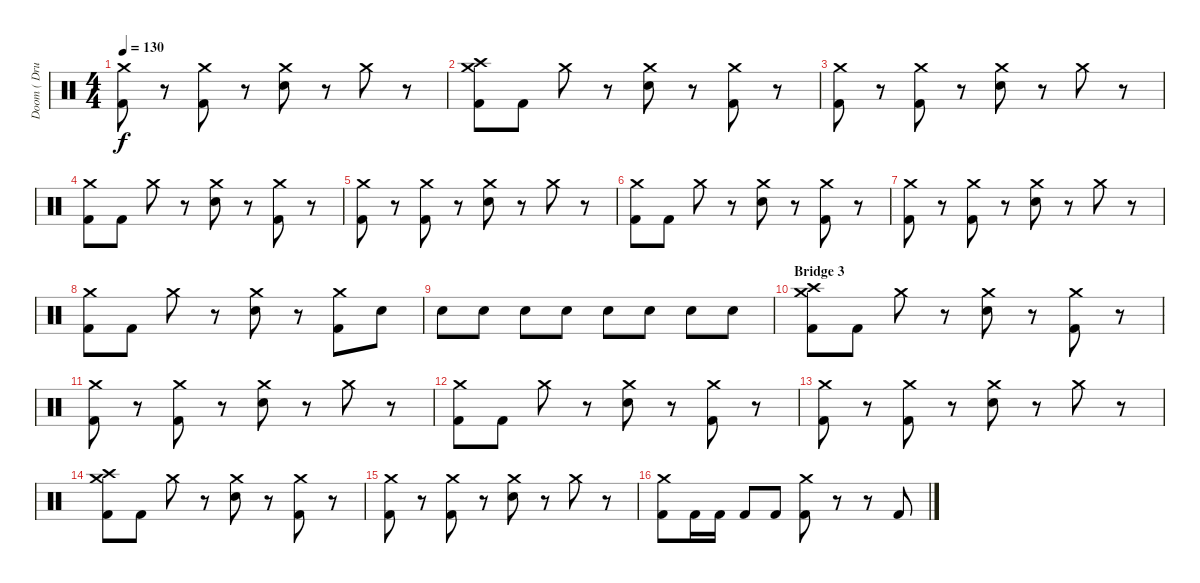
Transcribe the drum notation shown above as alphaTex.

\track ("Doom ( Drums )" "Doom ( Dru") {instrument percussion}
\staff {score}
\articulation defaults
\ts (4 4)
\tempo 130
\clef neutral
\ks c
("Kick (hit) 2" "Crash medium (hit)").8{dy f} r.8 ("Kick (hit) 2" "Crash medium (hit)").8 r.8 ("Electric Snare (hit)" "Crash medium (hit)").8 r.8 "Crash medium (hit)".8 r.8 |
("Crash high (hit)" "Kick (hit) 2" "Crash medium (hit)").8 "Kick (hit) 2".8 "Crash medium (hit)".8 r.8 ("Electric Snare (hit)" "Crash medium (hit)").8 r.8 ("Kick (hit) 2" "Crash medium (hit)").8 r.8 |
("Kick (hit) 2" "Crash medium (hit)").8 r.8 ("Kick (hit) 2" "Crash medium (hit)").8 r.8 ("Electric Snare (hit)" "Crash medium (hit)").8 r.8 "Crash medium (hit)".8 r.8 |
("Kick (hit) 2" "Crash medium (hit)").8 "Kick (hit) 2".8 "Crash medium (hit)".8 r.8 ("Electric Snare (hit)" "Crash medium (hit)").8 r.8 ("Kick (hit) 2" "Crash medium (hit)").8 r.8 |
("Kick (hit) 2" "Crash medium (hit)").8 r.8 ("Kick (hit) 2" "Crash medium (hit)").8 r.8 ("Electric Snare (hit)" "Crash medium (hit)").8 r.8 "Crash medium (hit)".8 r.8 |
("Kick (hit) 2" "Crash medium (hit)").8 "Kick (hit) 2".8 "Crash medium (hit)".8 r.8 ("Electric Snare (hit)" "Crash medium (hit)").8 r.8 ("Kick (hit) 2" "Crash medium (hit)").8 r.8 |
("Kick (hit) 2" "Crash medium (hit)").8 r.8 ("Kick (hit) 2" "Crash medium (hit)").8 r.8 ("Electric Snare (hit)" "Crash medium (hit)").8 r.8 "Crash medium (hit)".8 r.8 |
("Kick (hit) 2" "Crash medium (hit)").8 "Kick (hit) 2".8 "Crash medium (hit)".8 r.8 ("Electric Snare (hit)" "Crash medium (hit)").8 r.8 ("Kick (hit) 2" "Crash medium (hit)").8 "Electric Snare (hit)".8 |
"Electric Snare (hit)".8 "Electric Snare (hit)".8 "Electric Snare (hit)".8 "Electric Snare (hit)".8 "Electric Snare (hit)".8 "Electric Snare (hit)".8 "Electric Snare (hit)".8 "Electric Snare (hit)".8 |
\section ("" "Bridge 3")
("Crash high (hit)" "Kick (hit) 2" "Crash medium (hit)").8 "Kick (hit) 2".8 "Crash medium (hit)".8 r.8 ("Electric Snare (hit)" "Crash medium (hit)").8 r.8 ("Kick (hit) 2" "Crash medium (hit)").8 r.8 |
("Kick (hit) 2" "Crash medium (hit)").8 r.8 ("Kick (hit) 2" "Crash medium (hit)").8 r.8 ("Electric Snare (hit)" "Crash medium (hit)").8 r.8 "Crash medium (hit)".8 r.8 |
("Kick (hit) 2" "Crash medium (hit)").8 "Kick (hit) 2".8 "Crash medium (hit)".8 r.8 ("Electric Snare (hit)" "Crash medium (hit)").8 r.8 ("Kick (hit) 2" "Crash medium (hit)").8 r.8 |
("Kick (hit) 2" "Crash medium (hit)").8 r.8 ("Kick (hit) 2" "Crash medium (hit)").8 r.8 ("Electric Snare (hit)" "Crash medium (hit)").8 r.8 "Crash medium (hit)".8 r.8 |
("Crash high (hit)" "Kick (hit) 2" "Crash medium (hit)").8 "Kick (hit) 2".8 "Crash medium (hit)".8 r.8 ("Electric Snare (hit)" "Crash medium (hit)").8 r.8 ("Kick (hit) 2" "Crash medium (hit)").8 r.8 |
("Kick (hit) 2" "Crash medium (hit)").8 r.8 ("Kick (hit) 2" "Crash medium (hit)").8 r.8 ("Electric Snare (hit)" "Crash medium (hit)").8 r.8 "Crash medium (hit)".8 r.8 |
("Kick (hit) 2" "Crash medium (hit)").8 "Kick (hit) 2".16 "Kick (hit) 2".16 "Kick (hit) 2".8 "Kick (hit) 2".8 ("Kick (hit) 2" "Crash medium (hit)").8 r.8 r.8 "Kick (hit) 2".8
